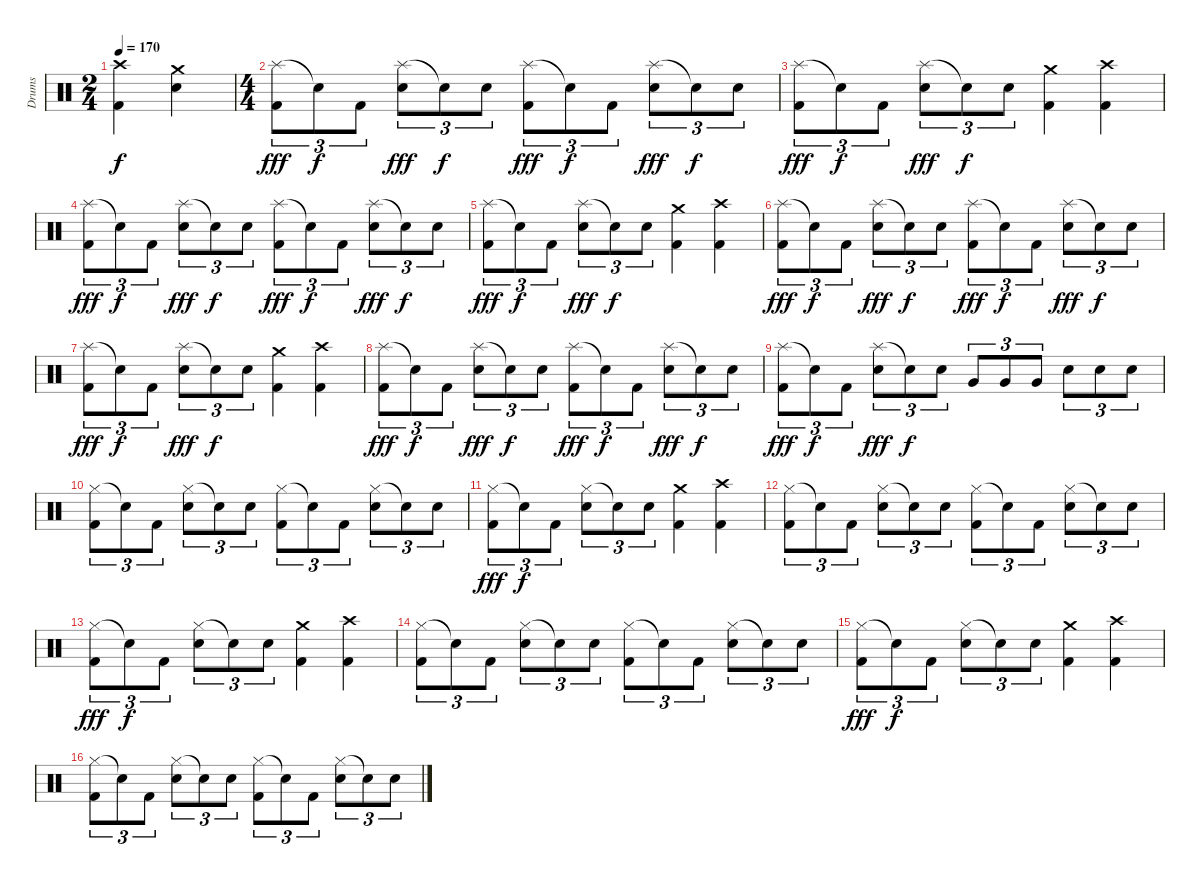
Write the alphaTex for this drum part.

\track ("Drums" "Drums") {instrument percussion}
\staff {score}
\articulation defaults
\ts (2 4)
\tempo 170
\clef neutral
\ks c
("Crash high (hit)" "Kick (hit) 2").4{dy f} ("Crash medium (hit)" "Snare (hit) 2").4 |
\ts (4 4)
("Splash (hit)" "Kick (hit) 2").8{tu (3 2) dy fff} "Snare (hit)"{t}.8{tu (3 2) dy f} "Kick (hit) 2".8{tu (3 2)} ("Splash (hit)" "Snare (hit) 2").8{tu (3 2) dy fff} "Snare (hit)"{t}.8{tu (3 2) dy f} "Snare (hit) 2".8{tu (3 2)} ("Splash (hit)" "Kick (hit) 2").8{tu (3 2) dy fff} "Snare (hit)"{t}.8{tu (3 2) dy f} "Kick (hit) 2".8{tu (3 2)} ("Splash (hit)" "Snare (hit) 2").8{tu (3 2) dy fff} "Snare (hit)"{t}.8{tu (3 2) dy f} "Snare (hit) 2".8{tu (3 2)} |
("Splash (hit)" "Kick (hit) 2").8{tu (3 2) dy fff} "Snare (hit)"{t}.8{tu (3 2) dy f} "Kick (hit) 2".8{tu (3 2)} ("Splash (hit)" "Snare (hit) 2").8{tu (3 2) dy fff} "Snare (hit)"{t}.8{tu (3 2) dy f} "Snare (hit) 2".8{tu (3 2)} ("Crash medium (hit)" "Kick (hit) 2").4 ("Crash high (hit)" "Kick (hit) 2").4 |
("Splash (hit)" "Kick (hit) 2").8{tu (3 2) dy fff} "Snare (hit)"{t}.8{tu (3 2) dy f} "Kick (hit) 2".8{tu (3 2)} ("Splash (hit)" "Snare (hit) 2").8{tu (3 2) dy fff} "Snare (hit)"{t}.8{tu (3 2) dy f} "Snare (hit) 2".8{tu (3 2)} ("Splash (hit)" "Kick (hit) 2").8{tu (3 2) dy fff} "Snare (hit)"{t}.8{tu (3 2) dy f} "Kick (hit) 2".8{tu (3 2)} ("Splash (hit)" "Snare (hit) 2").8{tu (3 2) dy fff} "Snare (hit)"{t}.8{tu (3 2) dy f} "Snare (hit) 2".8{tu (3 2)} |
("Splash (hit)" "Kick (hit) 2").8{tu (3 2) dy fff} "Snare (hit)"{t}.8{tu (3 2) dy f} "Kick (hit) 2".8{tu (3 2)} ("Splash (hit)" "Snare (hit) 2").8{tu (3 2) dy fff} "Snare (hit)"{t}.8{tu (3 2) dy f} "Snare (hit) 2".8{tu (3 2)} ("Crash medium (hit)" "Kick (hit) 2").4 ("Crash high (hit)" "Kick (hit) 2").4 |
("Splash (hit)" "Kick (hit) 2").8{tu (3 2) dy fff} "Snare (hit)"{t}.8{tu (3 2) dy f} "Kick (hit) 2".8{tu (3 2)} ("Splash (hit)" "Snare (hit) 2").8{tu (3 2) dy fff} "Snare (hit)"{t}.8{tu (3 2) dy f} "Snare (hit) 2".8{tu (3 2)} ("Splash (hit)" "Kick (hit) 2").8{tu (3 2) dy fff} "Snare (hit)"{t}.8{tu (3 2) dy f} "Kick (hit) 2".8{tu (3 2)} ("Splash (hit)" "Snare (hit) 2").8{tu (3 2) dy fff} "Snare (hit)"{t}.8{tu (3 2) dy f} "Snare (hit) 2".8{tu (3 2)} |
("Splash (hit)" "Kick (hit) 2").8{tu (3 2) dy fff} "Snare (hit)"{t}.8{tu (3 2) dy f} "Kick (hit) 2".8{tu (3 2)} ("Splash (hit)" "Snare (hit) 2").8{tu (3 2) dy fff} "Snare (hit)"{t}.8{tu (3 2) dy f} "Snare (hit) 2".8{tu (3 2)} ("Crash medium (hit)" "Kick (hit) 2").4 ("Crash high (hit)" "Kick (hit) 2").4 |
("Splash (hit)" "Kick (hit) 2").8{tu (3 2) dy fff} "Snare (hit)"{t}.8{tu (3 2) dy f} "Kick (hit) 2".8{tu (3 2)} ("Splash (hit)" "Snare (hit) 2").8{tu (3 2) dy fff} "Snare (hit)"{t}.8{tu (3 2) dy f} "Snare (hit) 2".8{tu (3 2)} ("Splash (hit)" "Kick (hit) 2").8{tu (3 2) dy fff} "Snare (hit)"{t}.8{tu (3 2) dy f} "Kick (hit) 2".8{tu (3 2)} ("Splash (hit)" "Snare (hit) 2").8{tu (3 2) dy fff} "Snare (hit)"{t}.8{tu (3 2) dy f} "Snare (hit) 2".8{tu (3 2)} |
("Splash (hit)" "Kick (hit) 2").8{tu (3 2) dy fff} "Snare (hit)"{t}.8{tu (3 2) dy f} "Kick (hit) 2".8{tu (3 2)} ("Splash (hit)" "Snare (hit) 2").8{tu (3 2) dy fff} "Snare (hit)"{t}.8{tu (3 2) dy f} "Snare (hit) 2".8{tu (3 2)} "Very Low Tom (hit)".8{tu (3 2)} "Very Low Tom (hit)".8{tu (3 2)} "Very Low Tom (hit)".8{tu (3 2)} "Snare (hit) 2".8{tu (3 2)} "Snare (hit) 2".8{tu (3 2)} "Snare (hit) 2".8{tu (3 2)} |
("Hi-Hat (closed)" "Kick (hit) 2").8{tu (3 2)} "Snare (hit)"{t}.8{tu (3 2)} "Kick (hit) 2".8{tu (3 2)} ("Hi-Hat (closed)" "Snare (hit) 2").8{tu (3 2)} "Snare (hit)"{t}.8{tu (3 2)} "Snare (hit) 2".8{tu (3 2)} ("Hi-Hat (closed)" "Kick (hit) 2").8{tu (3 2)} "Snare (hit)"{t}.8{tu (3 2)} "Kick (hit) 2".8{tu (3 2)} ("Hi-Hat (closed)" "Snare (hit) 2").8{tu (3 2)} "Snare (hit)"{t}.8{tu (3 2)} "Snare (hit) 2".8{tu (3 2)} |
("Hi-Hat (closed)" "Kick (hit) 2").8{tu (3 2) dy fff} "Snare (hit)"{t}.8{tu (3 2) dy f} "Kick (hit) 2".8{tu (3 2)} ("Hi-Hat (closed)" "Snare (hit) 2").8{tu (3 2)} "Snare (hit)"{t}.8{tu (3 2)} "Snare (hit) 2".8{tu (3 2)} ("Crash medium (hit)" "Kick (hit) 2").4 ("Crash high (hit)" "Kick (hit) 2").4 |
("Hi-Hat (closed)" "Kick (hit) 2").8{tu (3 2)} "Snare (hit)"{t}.8{tu (3 2)} "Kick (hit) 2".8{tu (3 2)} ("Hi-Hat (closed)" "Snare (hit) 2").8{tu (3 2)} "Snare (hit)"{t}.8{tu (3 2)} "Snare (hit) 2".8{tu (3 2)} ("Hi-Hat (closed)" "Kick (hit) 2").8{tu (3 2)} "Snare (hit)"{t}.8{tu (3 2)} "Kick (hit) 2".8{tu (3 2)} ("Hi-Hat (closed)" "Snare (hit) 2").8{tu (3 2)} "Snare (hit)"{t}.8{tu (3 2)} "Snare (hit) 2".8{tu (3 2)} |
("Hi-Hat (closed)" "Kick (hit) 2").8{tu (3 2) dy fff} "Snare (hit)"{t}.8{tu (3 2) dy f} "Kick (hit) 2".8{tu (3 2)} ("Hi-Hat (closed)" "Snare (hit) 2").8{tu (3 2)} "Snare (hit)"{t}.8{tu (3 2)} "Snare (hit) 2".8{tu (3 2)} ("Crash medium (hit)" "Kick (hit) 2").4 ("Crash high (hit)" "Kick (hit) 2").4 |
("Hi-Hat (closed)" "Kick (hit) 2").8{tu (3 2)} "Snare (hit)"{t}.8{tu (3 2)} "Kick (hit) 2".8{tu (3 2)} ("Hi-Hat (closed)" "Snare (hit) 2").8{tu (3 2)} "Snare (hit)"{t}.8{tu (3 2)} "Snare (hit) 2".8{tu (3 2)} ("Hi-Hat (closed)" "Kick (hit) 2").8{tu (3 2)} "Snare (hit)"{t}.8{tu (3 2)} "Kick (hit) 2".8{tu (3 2)} ("Hi-Hat (closed)" "Snare (hit) 2").8{tu (3 2)} "Snare (hit)"{t}.8{tu (3 2)} "Snare (hit) 2".8{tu (3 2)} |
("Hi-Hat (closed)" "Kick (hit) 2").8{tu (3 2) dy fff} "Snare (hit)"{t}.8{tu (3 2) dy f} "Kick (hit) 2".8{tu (3 2)} ("Hi-Hat (closed)" "Snare (hit) 2").8{tu (3 2)} "Snare (hit)"{t}.8{tu (3 2)} "Snare (hit) 2".8{tu (3 2)} ("Crash medium (hit)" "Kick (hit) 2").4 ("Crash high (hit)" "Kick (hit) 2").4 |
("Hi-Hat (closed)" "Kick (hit) 2").8{tu (3 2)} "Snare (hit)"{t}.8{tu (3 2)} "Kick (hit) 2".8{tu (3 2)} ("Hi-Hat (closed)" "Snare (hit) 2").8{tu (3 2)} "Snare (hit)"{t}.8{tu (3 2)} "Snare (hit) 2".8{tu (3 2)} ("Hi-Hat (closed)" "Kick (hit) 2").8{tu (3 2)} "Snare (hit)"{t}.8{tu (3 2)} "Kick (hit) 2".8{tu (3 2)} ("Hi-Hat (closed)" "Snare (hit) 2").8{tu (3 2)} "Snare (hit)"{t}.8{tu (3 2)} "Snare (hit) 2".8{tu (3 2)}
